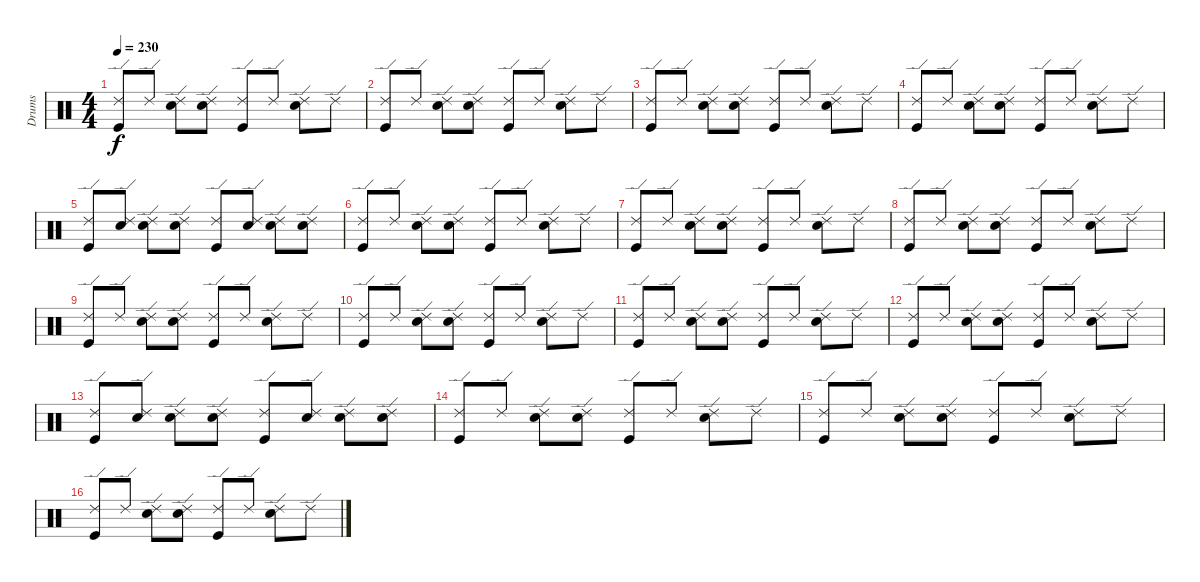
\track ("Drums" "Drums") {instrument percussion}
\staff {score}
\articulation defaults
\ts (4 4)
\tempo 230
\clef neutral
\ks c
("Ride (edge) 2" "Kick (hit)").8{dy f} "Ride (edge) 2".8 ("Ride (edge) 2" "Snare (hit) 2").8 ("Ride (edge) 2" "Snare (hit) 2").8 ("Ride (edge) 2" "Kick (hit)").8 "Ride (edge) 2".8 ("Ride (edge) 2" "Snare (hit) 2").8 "Ride (edge) 2".8 |
("Ride (edge) 2" "Kick (hit)").8 "Ride (edge) 2".8 ("Ride (edge) 2" "Snare (hit) 2").8 ("Ride (edge) 2" "Snare (hit) 2").8 ("Ride (edge) 2" "Kick (hit)").8 "Ride (edge) 2".8 ("Ride (edge) 2" "Snare (hit) 2").8 "Ride (edge) 2".8 |
("Ride (edge) 2" "Kick (hit)").8 "Ride (edge) 2".8 ("Ride (edge) 2" "Snare (hit) 2").8 ("Ride (edge) 2" "Snare (hit) 2").8 ("Ride (edge) 2" "Kick (hit)").8 "Ride (edge) 2".8 ("Ride (edge) 2" "Snare (hit) 2").8 "Ride (edge) 2".8 |
("Ride (edge) 2" "Kick (hit)").8 "Ride (edge) 2".8 ("Ride (edge) 2" "Snare (hit) 2").8 ("Ride (edge) 2" "Snare (hit) 2").8 ("Ride (edge) 2" "Kick (hit)").8 "Ride (edge) 2".8 ("Ride (edge) 2" "Snare (hit) 2").8 "Ride (edge) 2".8 |
("Ride (edge) 2" "Kick (hit)").8 ("Ride (edge) 2" "Snare (hit) 2").8 ("Ride (edge) 2" "Snare (hit) 2").8 ("Ride (edge) 2" "Snare (hit) 2").8 ("Ride (edge) 2" "Kick (hit)").8 ("Ride (edge) 2" "Snare (hit) 2").8 ("Ride (edge) 2" "Snare (hit) 2").8 ("Ride (edge) 2" "Snare (hit) 2").8 |
("Ride (edge) 2" "Kick (hit)").8 "Ride (edge) 2".8 ("Ride (edge) 2" "Snare (hit) 2").8 ("Ride (edge) 2" "Snare (hit) 2").8 ("Ride (edge) 2" "Kick (hit)").8 "Ride (edge) 2".8 ("Ride (edge) 2" "Snare (hit) 2").8 "Ride (edge) 2".8 |
("Ride (edge) 2" "Kick (hit)").8 "Ride (edge) 2".8 ("Ride (edge) 2" "Snare (hit) 2").8 ("Ride (edge) 2" "Snare (hit) 2").8 ("Ride (edge) 2" "Kick (hit)").8 "Ride (edge) 2".8 ("Ride (edge) 2" "Snare (hit) 2").8 "Ride (edge) 2".8 |
("Ride (edge) 2" "Kick (hit)").8 "Ride (edge) 2".8 ("Ride (edge) 2" "Snare (hit) 2").8 ("Ride (edge) 2" "Snare (hit) 2").8 ("Ride (edge) 2" "Kick (hit)").8 "Ride (edge) 2".8 ("Ride (edge) 2" "Snare (hit) 2").8 "Ride (edge) 2".8 |
("Ride (edge) 2" "Kick (hit)").8 "Ride (edge) 2".8 ("Ride (edge) 2" "Snare (hit) 2").8 ("Ride (edge) 2" "Snare (hit) 2").8 ("Ride (edge) 2" "Kick (hit)").8 "Ride (edge) 2".8 ("Ride (edge) 2" "Snare (hit) 2").8 "Ride (edge) 2".8 |
("Ride (edge) 2" "Kick (hit)").8 "Ride (edge) 2".8 ("Ride (edge) 2" "Snare (hit) 2").8 ("Ride (edge) 2" "Snare (hit) 2").8 ("Ride (edge) 2" "Kick (hit)").8 "Ride (edge) 2".8 ("Ride (edge) 2" "Snare (hit) 2").8 "Ride (edge) 2".8 |
("Ride (edge) 2" "Kick (hit)").8 "Ride (edge) 2".8 ("Ride (edge) 2" "Snare (hit) 2").8 ("Ride (edge) 2" "Snare (hit) 2").8 ("Ride (edge) 2" "Kick (hit)").8 "Ride (edge) 2".8 ("Ride (edge) 2" "Snare (hit) 2").8 "Ride (edge) 2".8 |
("Ride (edge) 2" "Kick (hit)").8 "Ride (edge) 2".8 ("Ride (edge) 2" "Snare (hit) 2").8 ("Ride (edge) 2" "Snare (hit) 2").8 ("Ride (edge) 2" "Kick (hit)").8 "Ride (edge) 2".8 ("Ride (edge) 2" "Snare (hit) 2").8 "Ride (edge) 2".8 |
("Ride (edge) 2" "Kick (hit)").8 ("Ride (edge) 2" "Snare (hit) 2").8 ("Ride (edge) 2" "Snare (hit) 2").8 ("Ride (edge) 2" "Snare (hit) 2").8 ("Ride (edge) 2" "Kick (hit)").8 ("Ride (edge) 2" "Snare (hit) 2").8 ("Ride (edge) 2" "Snare (hit) 2").8 ("Ride (edge) 2" "Snare (hit) 2").8 |
("Ride (edge) 2" "Kick (hit)").8 "Ride (edge) 2".8 ("Ride (edge) 2" "Snare (hit) 2").8 ("Ride (edge) 2" "Snare (hit) 2").8 ("Ride (edge) 2" "Kick (hit)").8 "Ride (edge) 2".8 ("Ride (edge) 2" "Snare (hit) 2").8 "Ride (edge) 2".8 |
("Ride (edge) 2" "Kick (hit)").8 "Ride (edge) 2".8 ("Ride (edge) 2" "Snare (hit) 2").8 ("Ride (edge) 2" "Snare (hit) 2").8 ("Ride (edge) 2" "Kick (hit)").8 "Ride (edge) 2".8 ("Ride (edge) 2" "Snare (hit) 2").8 "Ride (edge) 2".8 |
("Ride (edge) 2" "Kick (hit)").8 "Ride (edge) 2".8 ("Ride (edge) 2" "Snare (hit) 2").8 ("Ride (edge) 2" "Snare (hit) 2").8 ("Ride (edge) 2" "Kick (hit)").8 "Ride (edge) 2".8 ("Ride (edge) 2" "Snare (hit) 2").8 "Ride (edge) 2".8
